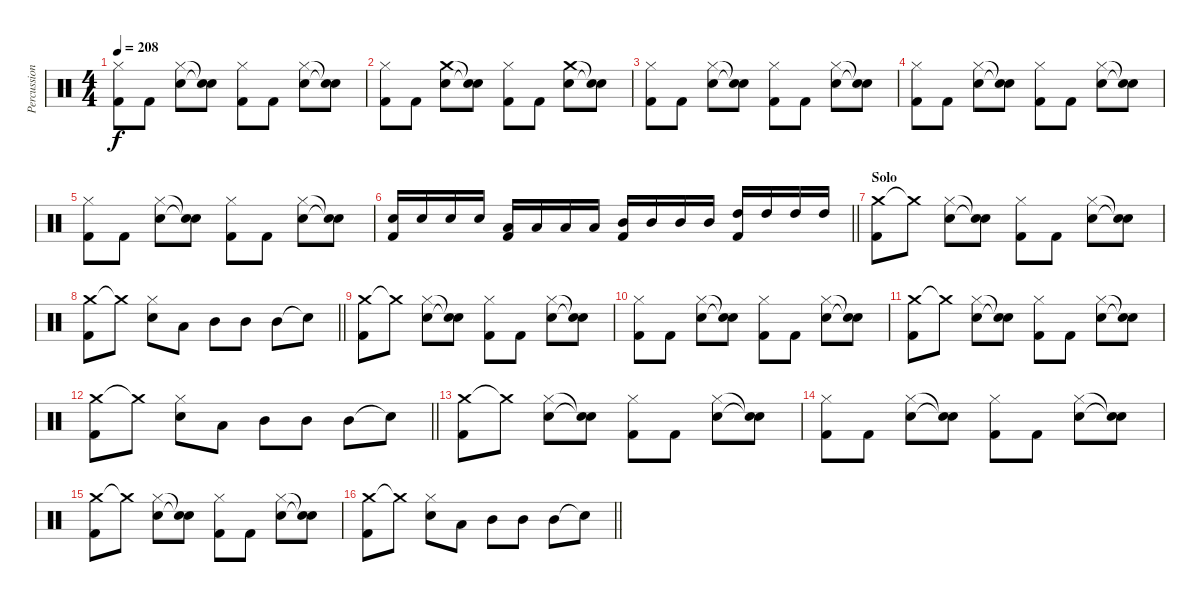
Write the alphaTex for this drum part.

\track ("Percussion" "Percussion") {instrument percussion}
\staff {score}
\articulation defaults
\ts (4 4)
\tempo 208
\clef neutral
\ks c
("Hi-Hat (closed)" "Kick (hit) 2").8{dy f} "Kick (hit) 2".8 ("Hi-Hat (closed)" "Snare (hit) 2").8 ("Snare (hit)"{t} "Snare (hit)"{t}).8 ("Hi-Hat (closed)" "Kick (hit) 2").8 "Kick (hit) 2".8 ("Hi-Hat (closed)" "Snare (hit) 2").8 ("Snare (hit)"{t} "Snare (hit)"{t}).8 |
("Hi-Hat (closed)" "Kick (hit) 2").8 "Kick (hit) 2".8 ("Crash medium (hit)" "Snare (hit) 2").8 ("Snare (hit)"{t} "Snare (hit)"{t}).8 ("Hi-Hat (closed)" "Kick (hit) 2").8 "Kick (hit) 2".8 ("Crash medium (hit)" "Snare (hit) 2").8 ("Snare (hit)"{t} "Snare (hit)"{t}).8 |
("Hi-Hat (closed)" "Kick (hit) 2").8 "Kick (hit) 2".8 ("Hi-Hat (closed)" "Snare (hit) 2").8 ("Snare (hit)"{t} "Snare (hit)"{t}).8 ("Hi-Hat (closed)" "Kick (hit) 2").8 "Kick (hit) 2".8 ("Hi-Hat (closed)" "Snare (hit) 2").8 ("Snare (hit)"{t} "Snare (hit)"{t}).8 |
("Hi-Hat (closed)" "Kick (hit) 2").8 "Kick (hit) 2".8 ("Hi-Hat (closed)" "Snare (hit) 2").8 ("Snare (hit)"{t} "Snare (hit)"{t}).8 ("Hi-Hat (closed)" "Kick (hit) 2").8 "Kick (hit) 2".8 ("Hi-Hat (closed)" "Snare (hit) 2").8 ("Snare (hit)"{t} "Snare (hit)"{t}).8 |
("Hi-Hat (closed)" "Kick (hit) 2").8 "Kick (hit) 2".8 ("Hi-Hat (closed)" "Snare (hit) 2").8 ("Snare (hit)"{t} "Snare (hit)"{t}).8 ("Hi-Hat (closed)" "Kick (hit) 2").8 "Kick (hit) 2".8 ("Hi-Hat (closed)" "Snare (hit) 2").8 ("Snare (hit)"{t} "Snare (hit)"{t}).8 |
\barLineRight lightlight
("Snare (hit) 2" "Kick (hit) 2").16 "Snare (hit) 2".16 "Snare (hit) 2".16 "Snare (hit) 2".16 ("Low Tom (hit)" "Kick (hit) 2").16 "Low Tom (hit)".16 "Low Tom (hit)".16 "Low Tom (hit)".16 ("Mid Tom (hit)" "Kick (hit) 2").16 "Mid Tom (hit)".16 "Mid Tom (hit)".16 "Mid Tom (hit)".16 ("High Tom (hit)" "Kick (hit) 2").16 "High Tom (hit)".16 "High Tom (hit)".16 "High Tom (hit)".16 |
\section ("" "Solo")
("Crash medium (hit)" "Kick (hit) 2").8 "Crash medium (hit)"{t}.8 ("Hi-Hat (closed)" "Snare (hit) 2").8 ("Snare (hit)"{t} "Snare (hit)"{t}).8 ("Hi-Hat (closed)" "Kick (hit) 2").8 "Kick (hit) 2".8 ("Hi-Hat (closed)" "Snare (hit) 2").8 ("Snare (hit)"{t} "Snare (hit)"{t}).8 |
\barLineRight lightlight
("Crash medium (hit)" "Kick (hit) 2").8 "Crash medium (hit)"{t}.8 ("Hi-Hat (closed)" "Snare (hit) 2").8 "Low Tom (hit)".8 "Mid Tom (hit)".8 "Mid Tom (hit)".8 "Mid Tom (hit)".8 "Snare (hit)"{t}.8 |
("Crash medium (hit)" "Kick (hit) 2").8 "Crash medium (hit)"{t}.8 ("Hi-Hat (closed)" "Snare (hit) 2").8 ("Snare (hit)"{t} "Snare (hit)"{t}).8 ("Hi-Hat (closed)" "Kick (hit) 2").8 "Kick (hit) 2".8 ("Hi-Hat (closed)" "Snare (hit) 2").8 ("Snare (hit)"{t} "Snare (hit)"{t}).8 |
("Hi-Hat (closed)" "Kick (hit) 2").8 "Kick (hit) 2".8 ("Hi-Hat (closed)" "Snare (hit) 2").8 ("Snare (hit)"{t} "Snare (hit)"{t}).8 ("Hi-Hat (closed)" "Kick (hit) 2").8 "Kick (hit) 2".8 ("Hi-Hat (closed)" "Snare (hit) 2").8 ("Snare (hit)"{t} "Snare (hit)"{t}).8 |
("Crash medium (hit)" "Kick (hit) 2").8 "Crash medium (hit)"{t}.8 ("Hi-Hat (closed)" "Snare (hit) 2").8 ("Snare (hit)"{t} "Snare (hit)"{t}).8 ("Hi-Hat (closed)" "Kick (hit) 2").8 "Kick (hit) 2".8 ("Hi-Hat (closed)" "Snare (hit) 2").8 ("Snare (hit)"{t} "Snare (hit)"{t}).8 |
\barLineRight lightlight
("Crash medium (hit)" "Kick (hit) 2").8 "Crash medium (hit)"{t}.8 ("Hi-Hat (closed)" "Snare (hit) 2").8 "Low Tom (hit)".8 "Mid Tom (hit)".8 "Mid Tom (hit)".8 "Mid Tom (hit)".8 "Snare (hit)"{t}.8 |
("Crash medium (hit)" "Kick (hit) 2").8 "Crash medium (hit)"{t}.8 ("Hi-Hat (closed)" "Snare (hit) 2").8 ("Snare (hit)"{t} "Snare (hit)"{t}).8 ("Hi-Hat (closed)" "Kick (hit) 2").8 "Kick (hit) 2".8 ("Hi-Hat (closed)" "Snare (hit) 2").8 ("Snare (hit)"{t} "Snare (hit)"{t}).8 |
("Hi-Hat (closed)" "Kick (hit) 2").8 "Kick (hit) 2".8 ("Hi-Hat (closed)" "Snare (hit) 2").8 ("Snare (hit)"{t} "Snare (hit)"{t}).8 ("Hi-Hat (closed)" "Kick (hit) 2").8 "Kick (hit) 2".8 ("Hi-Hat (closed)" "Snare (hit) 2").8 ("Snare (hit)"{t} "Snare (hit)"{t}).8 |
("Crash medium (hit)" "Kick (hit) 2").8 "Crash medium (hit)"{t}.8 ("Hi-Hat (closed)" "Snare (hit) 2").8 ("Snare (hit)"{t} "Snare (hit)"{t}).8 ("Hi-Hat (closed)" "Kick (hit) 2").8 "Kick (hit) 2".8 ("Hi-Hat (closed)" "Snare (hit) 2").8 ("Snare (hit)"{t} "Snare (hit)"{t}).8 |
\barLineRight lightlight
("Crash medium (hit)" "Kick (hit) 2").8 "Crash medium (hit)"{t}.8 ("Hi-Hat (closed)" "Snare (hit) 2").8 "Low Tom (hit)".8 "Mid Tom (hit)".8 "Mid Tom (hit)".8 "Mid Tom (hit)".8 "Snare (hit)"{t}.8
